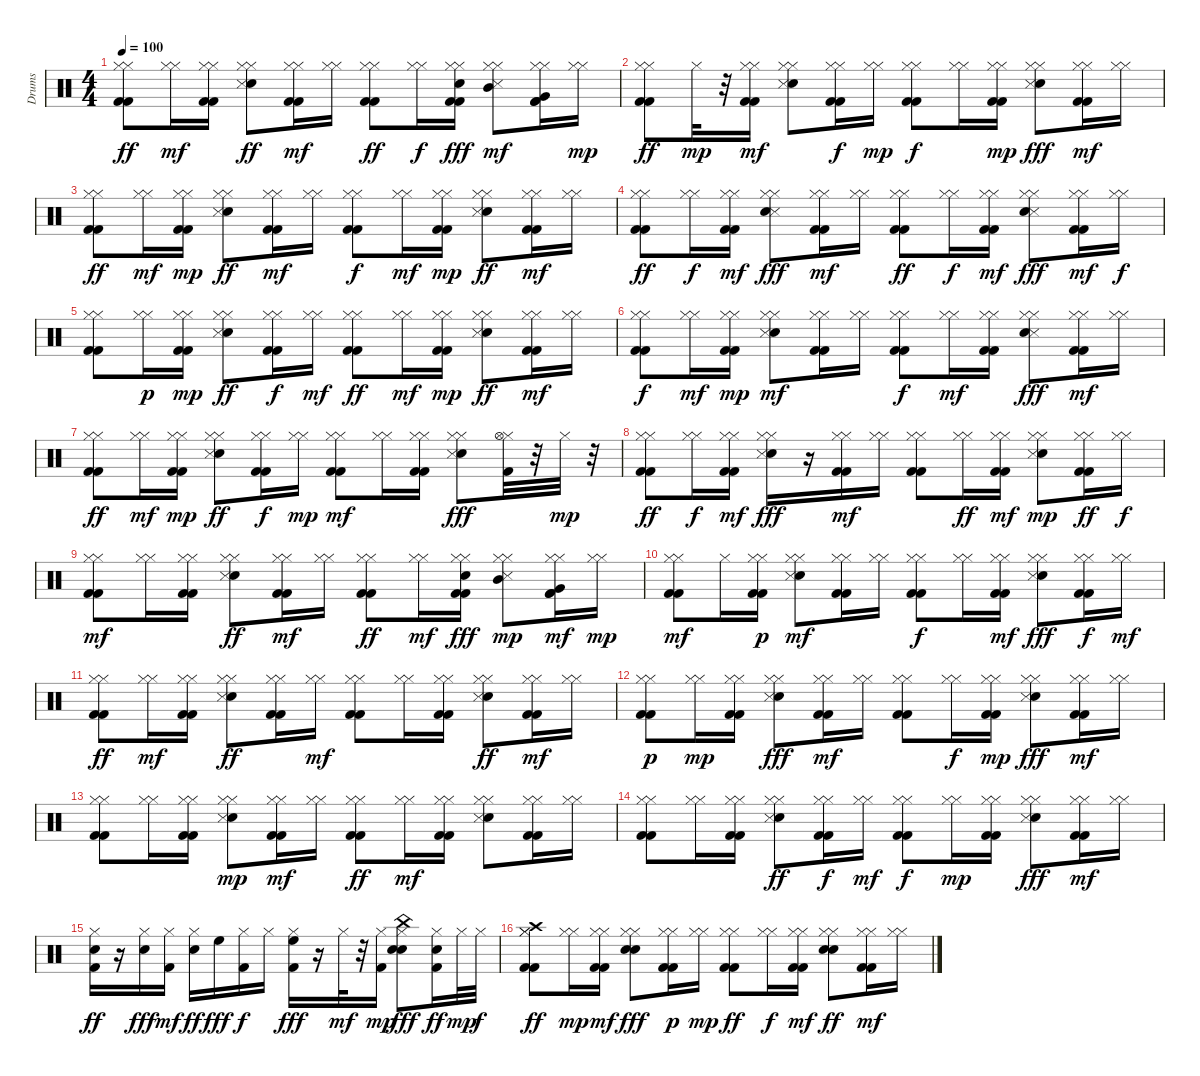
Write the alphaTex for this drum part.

\track ("Drums" "Drums") {instrument percussion}
\staff {score}
\articulation defaults
\ts (4 4)
\tempo 100
\clef neutral
\ks c
("Hi-Hat (closed)" "Kick (hit) 2" "Hi-Hat (closed)" "Kick (hit) 2").8{dy ff} ("Hi-Hat (closed)" "Hi-Hat (closed)").16{dy mf} ("Kick (hit) 2" "Hi-Hat (closed)" "Hi-Hat (closed)" "Kick (hit) 2").16 ("Hi-Hat (closed)" "Snare (hit) 2" "Hi-Hat (closed)" "Snare (side stick) 3").8{dy ff} ("Hi-Hat (closed)" "Kick (hit) 2" "Hi-Hat (closed)" "Kick (hit) 2").16{dy mf} ("Hi-Hat (closed)" "Hi-Hat (closed)").16 ("Hi-Hat (closed)" "Kick (hit) 2" "Kick (hit) 2" "Hi-Hat (closed)").8{dy ff} ("Hi-Hat (closed)" "Hi-Hat (closed)").16{dy f} ("Hi-Hat (closed)" "Hi-Hat (closed)" "Kick (hit) 2" "Kick (hit) 2" "Snare (hit) 2").16{dy fff} ("Hi-Hat (closed)" "Hi-Hat (closed)" "Mid Tom (hit)" "Snare (side stick) 3").8{dy mf} ("Kick (hit) 2" "Hi-Hat (closed)" "Hi-Hat (closed)" "Kick (hit) 2" "Very Low Tom (hit)").16 ("Hi-Hat (closed)" "Hi-Hat (closed)").16{dy mp} |
("Kick (hit) 2" "Hi-Hat (closed)" "Kick (hit) 2" "Hi-Hat (closed)").8{dy ff} "Hi-Hat (closed)".32{dy mp} r.32 ("Hi-Hat (closed)" "Kick (hit) 2" "Hi-Hat (closed)" "Kick (hit) 2").16{dy mf} ("Snare (hit) 2" "Hi-Hat (closed)" "Hi-Hat (closed)" "Snare (side stick) 3").8 ("Kick (hit) 2" "Hi-Hat (closed)" "Hi-Hat (closed)" "Kick (hit) 2").16{dy f} ("Hi-Hat (closed)" "Hi-Hat (closed)").16{dy mp} ("Kick (hit) 2" "Hi-Hat (closed)" "Kick (hit) 2" "Hi-Hat (closed)").8{dy f} ("Hi-Hat (closed)" "Hi-Hat (closed)").16 ("Kick (hit) 2" "Hi-Hat (closed)" "Kick (hit) 2" "Hi-Hat (closed)").16{dy mp} ("Hi-Hat (closed)" "Hi-Hat (closed)" "Snare (hit) 2" "Snare (side stick) 3").8{dy fff} ("Kick (hit) 2" "Hi-Hat (closed)" "Kick (hit) 2" "Hi-Hat (closed)").16{dy mf} ("Hi-Hat (closed)" "Hi-Hat (closed)").16 |
("Kick (hit) 2" "Hi-Hat (closed)" "Hi-Hat (closed)" "Kick (hit) 2").8{dy ff} ("Hi-Hat (closed)" "Hi-Hat (closed)").16{dy mf} ("Kick (hit) 2" "Hi-Hat (closed)" "Kick (hit) 2" "Hi-Hat (closed)").16{dy mp} ("Hi-Hat (closed)" "Snare (hit) 2" "Hi-Hat (closed)" "Snare (side stick) 3").8{dy ff} ("Kick (hit) 2" "Hi-Hat (closed)" "Kick (hit) 2" "Hi-Hat (closed)").16{dy mf} ("Hi-Hat (closed)" "Hi-Hat (closed)").16 ("Kick (hit) 2" "Hi-Hat (closed)" "Hi-Hat (closed)" "Kick (hit) 2").8{dy f} ("Hi-Hat (closed)" "Hi-Hat (closed)").16{dy mf} ("Kick (hit) 2" "Hi-Hat (closed)" "Kick (hit) 2" "Hi-Hat (closed)").16{dy mp} ("Hi-Hat (closed)" "Hi-Hat (closed)" "Snare (hit) 2" "Snare (side stick) 3").8{dy ff} ("Hi-Hat (closed)" "Kick (hit) 2" "Kick (hit) 2" "Hi-Hat (closed)").16{dy mf} ("Hi-Hat (closed)" "Hi-Hat (closed)").16 |
("Hi-Hat (closed)" "Kick (hit) 2" "Kick (hit) 2" "Hi-Hat (closed)").8{dy ff} ("Hi-Hat (closed)" "Hi-Hat (closed)").16{dy f} ("Kick (hit) 2" "Hi-Hat (closed)" "Kick (hit) 2" "Hi-Hat (closed)").16{dy mf} ("Hi-Hat (closed)" "Hi-Hat (closed)" "Snare (side stick) 3" "Snare (hit) 2").8{dy fff} ("Kick (hit) 2" "Hi-Hat (closed)" "Kick (hit) 2" "Hi-Hat (closed)").16{dy mf} ("Hi-Hat (closed)" "Hi-Hat (closed)").16 ("Hi-Hat (closed)" "Kick (hit) 2" "Kick (hit) 2" "Hi-Hat (closed)").8{dy ff} ("Hi-Hat (closed)" "Hi-Hat (closed)").16{dy f} ("Kick (hit) 2" "Hi-Hat (closed)" "Hi-Hat (closed)" "Kick (hit) 2").16{dy mf} ("Hi-Hat (closed)" "Hi-Hat (closed)" "Snare (side stick) 3" "Snare (hit) 2").8{dy fff} ("Kick (hit) 2" "Hi-Hat (closed)" "Kick (hit) 2" "Hi-Hat (closed)").16{dy mf} ("Hi-Hat (closed)" "Hi-Hat (closed)").16{dy f} |
("Hi-Hat (closed)" "Kick (hit) 2" "Kick (hit) 2" "Hi-Hat (closed)").8 ("Hi-Hat (closed)" "Hi-Hat (closed)").16{dy p} ("Kick (hit) 2" "Hi-Hat (closed)" "Kick (hit) 2" "Hi-Hat (closed)").16{dy mp} ("Hi-Hat (closed)" "Hi-Hat (closed)" "Snare (hit) 2" "Snare (side stick) 3").8{dy ff} ("Kick (hit) 2" "Kick (hit) 2" "Hi-Hat (closed)" "Hi-Hat (closed)").16{dy f} ("Hi-Hat (closed)" "Hi-Hat (closed)").16{dy mf} ("Kick (hit) 2" "Hi-Hat (closed)" "Kick (hit) 2" "Hi-Hat (closed)").8{dy ff} ("Hi-Hat (closed)" "Hi-Hat (closed)").16{dy mf} ("Kick (hit) 2" "Hi-Hat (closed)" "Kick (hit) 2" "Hi-Hat (closed)").16{dy mp} ("Hi-Hat (closed)" "Hi-Hat (closed)" "Snare (hit) 2" "Snare (side stick) 3").8{dy ff} ("Kick (hit) 2" "Hi-Hat (closed)" "Kick (hit) 2" "Hi-Hat (closed)").16{dy mf} ("Hi-Hat (closed)" "Hi-Hat (closed)").16 |
("Kick (hit) 2" "Hi-Hat (closed)" "Kick (hit) 2" "Hi-Hat (closed)").8{dy f} ("Hi-Hat (closed)" "Hi-Hat (closed)").16{dy mf} ("Kick (hit) 2" "Hi-Hat (closed)" "Hi-Hat (closed)" "Kick (hit) 2").16{dy mp} ("Hi-Hat (closed)" "Snare (hit) 2" "Hi-Hat (closed)" "Snare (side stick) 3").8{dy mf} ("Kick (hit) 2" "Hi-Hat (closed)" "Kick (hit) 2" "Hi-Hat (closed)").16 ("Hi-Hat (closed)" "Hi-Hat (closed)").16 ("Kick (hit) 2" "Hi-Hat (closed)" "Kick (hit) 2" "Hi-Hat (closed)").8{dy f} ("Hi-Hat (closed)" "Hi-Hat (closed)").16{dy mf} ("Kick (hit) 2" "Hi-Hat (closed)" "Kick (hit) 2" "Hi-Hat (closed)").16 ("Hi-Hat (closed)" "Hi-Hat (closed)" "Snare (side stick) 3" "Snare (hit) 2").8{dy fff} ("Kick (hit) 2" "Hi-Hat (closed)" "Kick (hit) 2" "Hi-Hat (closed)").16{dy mf} ("Hi-Hat (closed)" "Hi-Hat (closed)").16 |
("Kick (hit) 2" "Hi-Hat (closed)" "Kick (hit) 2" "Hi-Hat (closed)").8{dy ff} ("Hi-Hat (closed)" "Hi-Hat (closed)").16{dy mf} ("Kick (hit) 2" "Hi-Hat (closed)" "Kick (hit) 2" "Hi-Hat (closed)").16{dy mp} ("Hi-Hat (closed)" "Hi-Hat (closed)" "Snare (hit) 2" "Snare (side stick) 3").8{dy ff} ("Kick (hit) 2" "Hi-Hat (closed)" "Kick (hit) 2" "Hi-Hat (closed)").16{dy f} ("Hi-Hat (closed)" "Hi-Hat (closed)").16{dy mp} ("Hi-Hat (closed)" "Kick (hit) 2" "Kick (hit) 2" "Hi-Hat (closed)").8{dy mf} ("Hi-Hat (closed)" "Hi-Hat (closed)").16 ("Kick (hit) 2" "Hi-Hat (closed)" "Kick (hit) 2" "Hi-Hat (closed)").16 ("Hi-Hat (closed)" "Hi-Hat (closed)" "Snare (hit) 2" "Snare (side stick) 3").8{dy fff} ("Kick (hit) 2" "Hi-Hat (closed)" "Hi-Hat (open)").32 r.32 "Hi-Hat (closed)".32{dy mp} r.32 |
("Kick (hit) 2" "Hi-Hat (closed)" "Hi-Hat (closed)" "Kick (hit) 2").8{dy ff} ("Hi-Hat (closed)" "Hi-Hat (closed)").16{dy f} ("Hi-Hat (closed)" "Kick (hit) 2" "Hi-Hat (closed)" "Kick (hit) 2").16{dy mf} ("Hi-Hat (closed)" "Hi-Hat (closed)" "Snare (hit) 2" "Snare (side stick) 3").16{dy fff} r.16 ("Kick (hit) 2" "Hi-Hat (closed)" "Kick (hit) 2" "Hi-Hat (closed)").16{dy mf} ("Hi-Hat (closed)" "Hi-Hat (closed)").16 ("Kick (hit) 2" "Hi-Hat (closed)" "Hi-Hat (closed)" "Kick (hit) 2").8 ("Hi-Hat (closed)" "Hi-Hat (closed)").16{dy ff} ("Kick (hit) 2" "Hi-Hat (closed)" "Kick (hit) 2" "Hi-Hat (closed)").16{dy mf} ("Hi-Hat (closed)" "Snare (hit) 2" "Hi-Hat (closed)" "Snare (side stick) 3").8{dy mp} ("Kick (hit) 2" "Hi-Hat (closed)" "Hi-Hat (closed)" "Kick (hit) 2").16{dy ff} ("Hi-Hat (closed)" "Hi-Hat (closed)").16{dy f} |
("Hi-Hat (closed)" "Kick (hit) 2" "Kick (hit) 2" "Hi-Hat (closed)").8{dy mf} ("Hi-Hat (closed)" "Hi-Hat (closed)").16 ("Kick (hit) 2" "Hi-Hat (closed)" "Kick (hit) 2" "Hi-Hat (closed)").16 ("Hi-Hat (closed)" "Snare (hit) 2" "Hi-Hat (closed)" "Snare (side stick) 3").8{dy ff} ("Hi-Hat (closed)" "Kick (hit) 2" "Kick (hit) 2" "Hi-Hat (closed)").16{dy mf} ("Hi-Hat (closed)" "Hi-Hat (closed)").16 ("Hi-Hat (closed)" "Kick (hit) 2" "Hi-Hat (closed)" "Kick (hit) 2").8{dy ff} ("Hi-Hat (closed)" "Hi-Hat (closed)").16{dy mf} ("Hi-Hat (closed)" "Kick (hit) 2" "Kick (hit) 2" "Hi-Hat (closed)" "Snare (hit) 2").16{dy fff} ("Hi-Hat (closed)" "Hi-Hat (closed)" "Mid Tom (hit)" "Snare (side stick) 3").8{dy mp} ("Kick (hit) 2" "Hi-Hat (closed)" "Kick (hit) 2" "Hi-Hat (closed)" "Very Low Tom (hit)").16{dy mf} ("Hi-Hat (closed)" "Hi-Hat (closed)").16{dy mp} |
("Kick (hit) 2" "Hi-Hat (closed)" "Hi-Hat (closed)" "Kick (hit) 2").8{dy mf} "Hi-Hat (closed)".16 ("Hi-Hat (closed)" "Kick (hit) 2" "Kick (hit) 2" "Hi-Hat (closed)").16{dy p} ("Snare (hit) 2" "Hi-Hat (closed)" "Hi-Hat (closed)" "Snare (side stick) 3").8{dy mf} ("Kick (hit) 2" "Hi-Hat (closed)" "Hi-Hat (closed)" "Kick (hit) 2").16 ("Hi-Hat (closed)" "Hi-Hat (closed)").16 ("Kick (hit) 2" "Hi-Hat (closed)" "Kick (hit) 2" "Hi-Hat (closed)").8{dy f} ("Hi-Hat (closed)" "Hi-Hat (closed)").16 ("Kick (hit) 2" "Hi-Hat (closed)" "Kick (hit) 2" "Hi-Hat (closed)").16{dy mf} ("Hi-Hat (closed)" "Hi-Hat (closed)" "Snare (hit) 2" "Snare (side stick) 3").8{dy fff} ("Kick (hit) 2" "Hi-Hat (closed)" "Hi-Hat (closed)" "Kick (hit) 2").16{dy f} ("Hi-Hat (closed)" "Hi-Hat (closed)").16{dy mf} |
("Kick (hit) 2" "Hi-Hat (closed)" "Kick (hit) 2" "Hi-Hat (closed)").8{dy ff} ("Hi-Hat (closed)" "Hi-Hat (closed)").16{dy mf} ("Kick (hit) 2" "Hi-Hat (closed)" "Kick (hit) 2" "Hi-Hat (closed)").16 ("Hi-Hat (closed)" "Snare (hit) 2" "Hi-Hat (closed)" "Snare (side stick) 3").8{dy ff} ("Kick (hit) 2" "Hi-Hat (closed)" "Hi-Hat (closed)" "Kick (hit) 2").16 ("Hi-Hat (closed)" "Hi-Hat (closed)").16{dy mf} ("Kick (hit) 2" "Hi-Hat (closed)" "Hi-Hat (closed)" "Kick (hit) 2").8 ("Hi-Hat (closed)" "Hi-Hat (closed)").16 ("Kick (hit) 2" "Hi-Hat (closed)" "Kick (hit) 2" "Hi-Hat (closed)").16 ("Hi-Hat (closed)" "Hi-Hat (closed)" "Snare (hit) 2" "Snare (side stick) 3").8{dy ff} ("Hi-Hat (closed)" "Kick (hit) 2" "Hi-Hat (closed)" "Kick (hit) 2").16{dy mf} ("Hi-Hat (closed)" "Hi-Hat (closed)").16 |
("Hi-Hat (closed)" "Kick (hit) 2" "Kick (hit) 2" "Hi-Hat (closed)").8{dy p} ("Hi-Hat (closed)" "Hi-Hat (closed)").16{dy mp} ("Kick (hit) 2" "Hi-Hat (closed)" "Kick (hit) 2" "Hi-Hat (closed)").16 ("Hi-Hat (closed)" "Hi-Hat (closed)" "Snare (hit) 2" "Snare (side stick) 3").8{dy fff} ("Kick (hit) 2" "Hi-Hat (closed)" "Kick (hit) 2" "Hi-Hat (closed)").16{dy mf} ("Hi-Hat (closed)" "Hi-Hat (closed)").16 ("Hi-Hat (closed)" "Kick (hit) 2" "Kick (hit) 2" "Hi-Hat (closed)").8 ("Hi-Hat (closed)" "Hi-Hat (closed)").16{dy f} ("Kick (hit) 2" "Hi-Hat (closed)" "Hi-Hat (closed)" "Kick (hit) 2").16{dy mp} ("Hi-Hat (closed)" "Hi-Hat (closed)" "Snare (hit) 2" "Snare (side stick) 3").8{dy fff} ("Kick (hit) 2" "Hi-Hat (closed)" "Kick (hit) 2" "Hi-Hat (closed)").16{dy mf} ("Hi-Hat (closed)" "Hi-Hat (closed)").16 |
("Hi-Hat (closed)" "Kick (hit) 2" "Hi-Hat (closed)" "Kick (hit) 2").8 ("Hi-Hat (closed)" "Hi-Hat (closed)").16 ("Kick (hit) 2" "Hi-Hat (closed)" "Kick (hit) 2" "Hi-Hat (closed)").16 ("Hi-Hat (closed)" "Snare (hit) 2" "Hi-Hat (closed)" "Snare (side stick) 3").8{dy mp} ("Kick (hit) 2" "Hi-Hat (closed)" "Kick (hit) 2" "Hi-Hat (closed)").16{dy mf} ("Hi-Hat (closed)" "Hi-Hat (closed)").16 ("Kick (hit) 2" "Hi-Hat (closed)" "Hi-Hat (closed)" "Kick (hit) 2").8{dy ff} ("Hi-Hat (closed)" "Hi-Hat (closed)").16{dy mf} ("Kick (hit) 2" "Hi-Hat (closed)" "Kick (hit) 2" "Hi-Hat (closed)").16 ("Hi-Hat (closed)" "Snare (hit) 2" "Hi-Hat (closed)" "Snare (side stick) 3").8 ("Kick (hit) 2" "Hi-Hat (closed)" "Hi-Hat (closed)" "Kick (hit) 2").16 ("Hi-Hat (closed)" "Hi-Hat (closed)").16 |
("Kick (hit) 2" "Hi-Hat (closed)" "Kick (hit) 2" "Hi-Hat (closed)").8 ("Hi-Hat (closed)" "Hi-Hat (closed)").16 ("Kick (hit) 2" "Hi-Hat (closed)" "Kick (hit) 2" "Hi-Hat (closed)").16 ("Hi-Hat (closed)" "Hi-Hat (closed)" "Snare (hit) 2" "Snare (side stick) 3").8{dy ff} ("Kick (hit) 2" "Hi-Hat (closed)" "Kick (hit) 2" "Hi-Hat (closed)").16{dy f} ("Hi-Hat (closed)" "Hi-Hat (closed)").16{dy mf} ("Kick (hit) 2" "Hi-Hat (closed)" "Kick (hit) 2" "Hi-Hat (closed)").8{dy f} ("Hi-Hat (closed)" "Hi-Hat (closed)").16{dy mp} ("Kick (hit) 2" "Kick (hit) 2" "Hi-Hat (closed)" "Hi-Hat (closed)").16 ("Hi-Hat (closed)" "Hi-Hat (closed)" "Snare (hit) 2" "Snare (side stick) 3").8{dy fff} ("Kick (hit) 2" "Hi-Hat (closed)" "Hi-Hat (closed)" "Kick (hit) 2").16{dy mf} ("Hi-Hat (closed)" "Hi-Hat (closed)").16 |
("Kick (hit) 2" "Hi-Hat (closed)" "Snare (hit) 2").16{dy ff} r.16 ("Hi-Hat (closed)" "Snare (hit) 2").16{dy fff} ("Kick (hit) 2" "Hi-Hat (closed)").16{dy mf} ("Hi-Hat (closed)" "Snare (hit) 2").16{dy ff} "High Floor Tom (hit)".16{dy fff} ("Kick (hit) 2" "Hi-Hat (closed)").16{dy f} "Hi-Hat (closed)".16 ("Hi-Hat (closed)" "Kick (hit) 2" "High Floor Tom (hit)").16{dy fff} r.16 "Hi-Hat (closed)".32{dy mf} r.32 ("Kick (hit) 2" "Hi-Hat (closed)").16{dy mp} ("China (hit)" "Hi-Hat (closed)" "Snare (hit) 2" "Snare (hit) 2").8{dy fff} ("Kick (hit) 2" "Hi-Hat (closed)" "Snare (hit) 2").16{dy ff} "Hi-Hat (closed)".32{dy mp} "Hi-Hat (closed)".32{dy f} |
("Kick (hit) 2" "Crash high (hit)" "Hi-Hat (closed)" "Hi-Hat (closed)" "Kick (hit) 2").8{dy ff} ("Hi-Hat (closed)" "Hi-Hat (closed)").16{dy mp} ("Hi-Hat (closed)" "Kick (hit) 2" "Hi-Hat (closed)" "Kick (hit) 2").16{dy mf} ("Hi-Hat (closed)" "Hi-Hat (closed)" "Snare (hit) 2" "Snare (hit) 2").8{dy fff} ("Kick (hit) 2" "Hi-Hat (closed)" "Kick (hit) 2" "Hi-Hat (closed)").16{dy p} ("Hi-Hat (closed)" "Hi-Hat (closed)").16{dy mp} ("Kick (hit) 2" "Hi-Hat (closed)" "Kick (hit) 2" "Hi-Hat (closed)").8{dy ff} ("Hi-Hat (closed)" "Hi-Hat (closed)").16{dy f} ("Kick (hit) 2" "Hi-Hat (closed)" "Kick (hit) 2" "Hi-Hat (closed)").16{dy mf} ("Hi-Hat (closed)" "Hi-Hat (closed)" "Snare (hit) 2" "Snare (hit) 2").8{dy ff} ("Kick (hit) 2" "Hi-Hat (closed)" "Kick (hit) 2" "Hi-Hat (closed)").16{dy mf} ("Hi-Hat (closed)" "Hi-Hat (closed)").16
